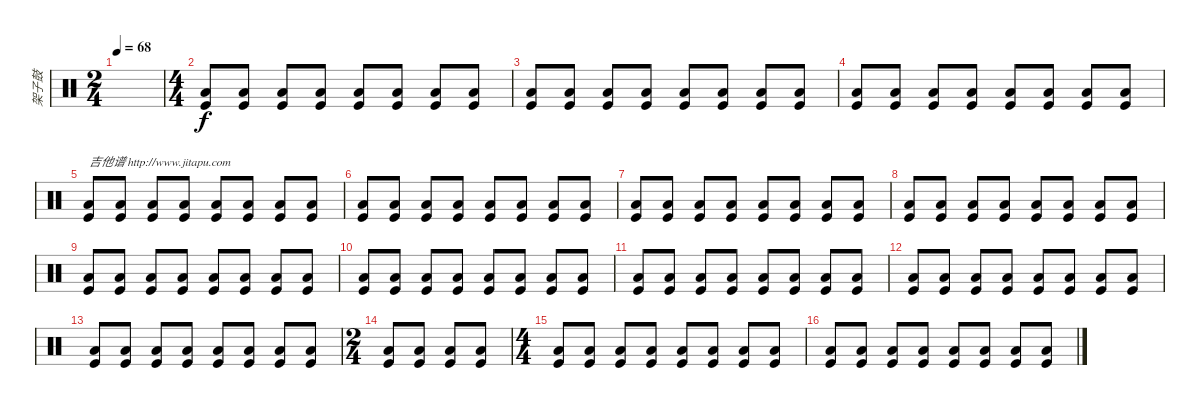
\track ("架子鼓" "架子鼓") {instrument percussion}
\staff {score}
\articulation defaults
\ts (2 4)
\tempo 68
\clef neutral
\ks c
|
\ts (4 4)
("Low Floor Tom (hit)" "Kick (hit)").8 ("Low Floor Tom (hit)" "Kick (hit)").8 ("Low Floor Tom (hit)" "Kick (hit)").8 ("Low Floor Tom (hit)" "Kick (hit)").8 ("Low Floor Tom (hit)" "Kick (hit)").8 ("Low Floor Tom (hit)" "Kick (hit)").8 ("Low Floor Tom (hit)" "Kick (hit)").8 ("Low Floor Tom (hit)" "Kick (hit)").8 |
("Low Floor Tom (hit)" "Kick (hit)").8 ("Low Floor Tom (hit)" "Kick (hit)").8 ("Low Floor Tom (hit)" "Kick (hit)").8 ("Low Floor Tom (hit)" "Kick (hit)").8 ("Low Floor Tom (hit)" "Kick (hit)").8 ("Low Floor Tom (hit)" "Kick (hit)").8 ("Low Floor Tom (hit)" "Kick (hit)").8 ("Low Floor Tom (hit)" "Kick (hit)").8 |
("Low Floor Tom (hit)" "Kick (hit)").8 ("Low Floor Tom (hit)" "Kick (hit)").8 ("Low Floor Tom (hit)" "Kick (hit)").8 ("Low Floor Tom (hit)" "Kick (hit)").8 ("Low Floor Tom (hit)" "Kick (hit)").8 ("Low Floor Tom (hit)" "Kick (hit)").8 ("Low Floor Tom (hit)" "Kick (hit)").8 ("Low Floor Tom (hit)" "Kick (hit)").8 |
("Low Floor Tom (hit)" "Kick (hit)").8{txt "吉他谱 http://www.jitapu.com"} ("Low Floor Tom (hit)" "Kick (hit)").8 ("Low Floor Tom (hit)" "Kick (hit)").8 ("Low Floor Tom (hit)" "Kick (hit)").8 ("Low Floor Tom (hit)" "Kick (hit)").8 ("Low Floor Tom (hit)" "Kick (hit)").8 ("Low Floor Tom (hit)" "Kick (hit)").8 ("Low Floor Tom (hit)" "Kick (hit)").8 |
("Low Floor Tom (hit)" "Kick (hit)").8 ("Low Floor Tom (hit)" "Kick (hit)").8 ("Low Floor Tom (hit)" "Kick (hit)").8 ("Low Floor Tom (hit)" "Kick (hit)").8 ("Low Floor Tom (hit)" "Kick (hit)").8 ("Low Floor Tom (hit)" "Kick (hit)").8 ("Low Floor Tom (hit)" "Kick (hit)").8 ("Low Floor Tom (hit)" "Kick (hit)").8 |
("Low Floor Tom (hit)" "Kick (hit)").8 ("Low Floor Tom (hit)" "Kick (hit)").8 ("Low Floor Tom (hit)" "Kick (hit)").8 ("Low Floor Tom (hit)" "Kick (hit)").8 ("Low Floor Tom (hit)" "Kick (hit)").8 ("Low Floor Tom (hit)" "Kick (hit)").8 ("Low Floor Tom (hit)" "Kick (hit)").8 ("Low Floor Tom (hit)" "Kick (hit)").8 |
("Low Floor Tom (hit)" "Kick (hit)").8 ("Low Floor Tom (hit)" "Kick (hit)").8 ("Low Floor Tom (hit)" "Kick (hit)").8 ("Low Floor Tom (hit)" "Kick (hit)").8 ("Low Floor Tom (hit)" "Kick (hit)").8 ("Low Floor Tom (hit)" "Kick (hit)").8 ("Low Floor Tom (hit)" "Kick (hit)").8 ("Low Floor Tom (hit)" "Kick (hit)").8 |
("Low Floor Tom (hit)" "Kick (hit)").8 ("Low Floor Tom (hit)" "Kick (hit)").8 ("Low Floor Tom (hit)" "Kick (hit)").8 ("Low Floor Tom (hit)" "Kick (hit)").8 ("Low Floor Tom (hit)" "Kick (hit)").8 ("Low Floor Tom (hit)" "Kick (hit)").8 ("Low Floor Tom (hit)" "Kick (hit)").8 ("Low Floor Tom (hit)" "Kick (hit)").8 |
("Low Floor Tom (hit)" "Kick (hit)").8 ("Low Floor Tom (hit)" "Kick (hit)").8 ("Low Floor Tom (hit)" "Kick (hit)").8 ("Low Floor Tom (hit)" "Kick (hit)").8 ("Low Floor Tom (hit)" "Kick (hit)").8 ("Low Floor Tom (hit)" "Kick (hit)").8 ("Low Floor Tom (hit)" "Kick (hit)").8 ("Low Floor Tom (hit)" "Kick (hit)").8 |
("Low Floor Tom (hit)" "Kick (hit)").8 ("Low Floor Tom (hit)" "Kick (hit)").8 ("Low Floor Tom (hit)" "Kick (hit)").8 ("Low Floor Tom (hit)" "Kick (hit)").8 ("Low Floor Tom (hit)" "Kick (hit)").8 ("Low Floor Tom (hit)" "Kick (hit)").8 ("Low Floor Tom (hit)" "Kick (hit)").8 ("Low Floor Tom (hit)" "Kick (hit)").8 |
("Low Floor Tom (hit)" "Kick (hit)").8 ("Low Floor Tom (hit)" "Kick (hit)").8 ("Low Floor Tom (hit)" "Kick (hit)").8 ("Low Floor Tom (hit)" "Kick (hit)").8 ("Low Floor Tom (hit)" "Kick (hit)").8 ("Low Floor Tom (hit)" "Kick (hit)").8 ("Low Floor Tom (hit)" "Kick (hit)").8 ("Low Floor Tom (hit)" "Kick (hit)").8 |
("Low Floor Tom (hit)" "Kick (hit)").8 ("Low Floor Tom (hit)" "Kick (hit)").8 ("Low Floor Tom (hit)" "Kick (hit)").8 ("Low Floor Tom (hit)" "Kick (hit)").8 ("Low Floor Tom (hit)" "Kick (hit)").8 ("Low Floor Tom (hit)" "Kick (hit)").8 ("Low Floor Tom (hit)" "Kick (hit)").8 ("Low Floor Tom (hit)" "Kick (hit)").8 |
\ts (2 4)
("Low Floor Tom (hit)" "Kick (hit)").8 ("Low Floor Tom (hit)" "Kick (hit)").8 ("Low Floor Tom (hit)" "Kick (hit)").8 ("Low Floor Tom (hit)" "Kick (hit)").8 |
\ts (4 4)
("Low Floor Tom (hit)" "Kick (hit)").8 ("Low Floor Tom (hit)" "Kick (hit)").8 ("Low Floor Tom (hit)" "Kick (hit)").8 ("Low Floor Tom (hit)" "Kick (hit)").8 ("Low Floor Tom (hit)" "Kick (hit)").8 ("Low Floor Tom (hit)" "Kick (hit)").8 ("Low Floor Tom (hit)" "Kick (hit)").8 ("Low Floor Tom (hit)" "Kick (hit)").8 |
("Low Floor Tom (hit)" "Kick (hit)").8 ("Low Floor Tom (hit)" "Kick (hit)").8 ("Low Floor Tom (hit)" "Kick (hit)").8 ("Low Floor Tom (hit)" "Kick (hit)").8 ("Low Floor Tom (hit)" "Kick (hit)").8 ("Low Floor Tom (hit)" "Kick (hit)").8 ("Low Floor Tom (hit)" "Kick (hit)").8 ("Low Floor Tom (hit)" "Kick (hit)").8
